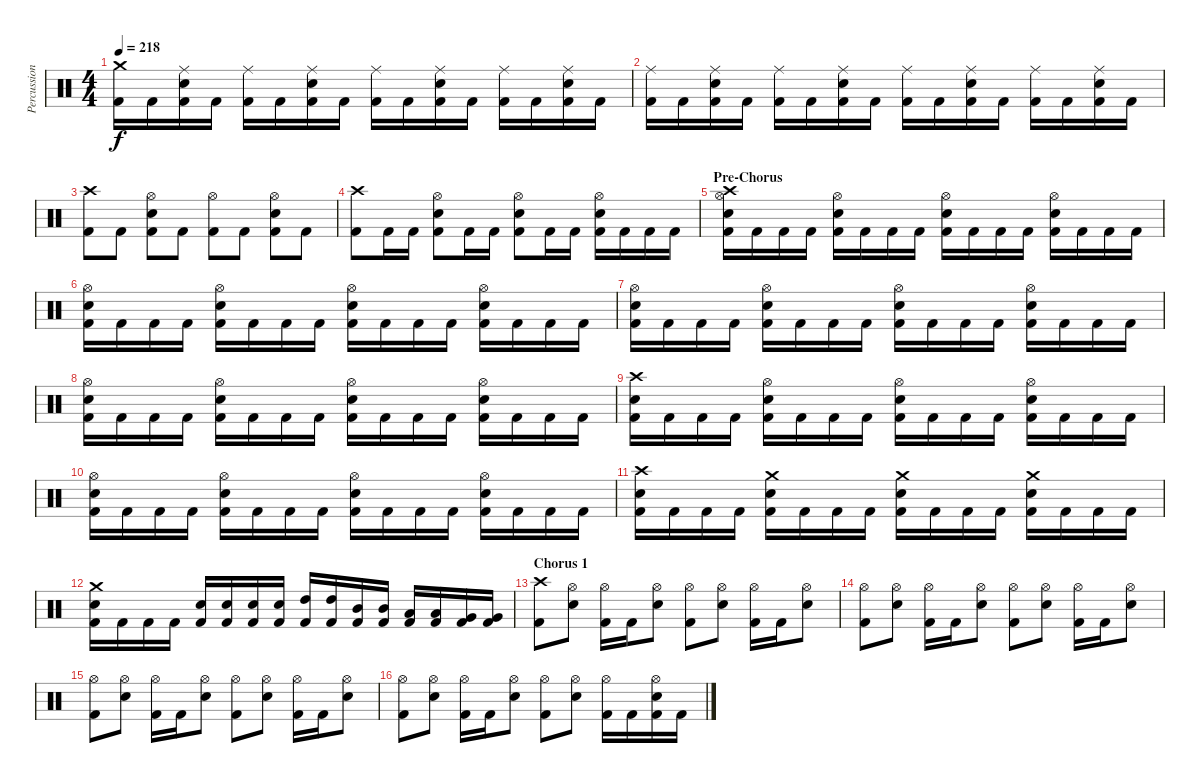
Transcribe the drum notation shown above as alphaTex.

\track ("Percussion" "Percussion") {instrument percussion}
\staff {score}
\articulation defaults
\ts (4 4)
\tempo 218
\clef neutral
\ks c
("Crash medium (hit)" "Kick (hit) 2").16{dy f} "Kick (hit) 2".16 ("Ride (middle)" "Electric Snare (hit)" "Kick (hit) 2").16 "Kick (hit) 2".16 ("Ride (middle)" "Kick (hit) 2").16 "Kick (hit) 2".16 ("Ride (middle)" "Electric Snare (hit)" "Kick (hit) 2").16 "Kick (hit) 2".16 ("Ride (middle)" "Kick (hit) 2").16 "Kick (hit) 2".16 ("Ride (middle)" "Electric Snare (hit)" "Kick (hit) 2").16 "Kick (hit) 2".16 ("Ride (middle)" "Kick (hit) 2").16 "Kick (hit) 2".16 ("Ride (middle)" "Electric Snare (hit)" "Kick (hit) 2").16 "Kick (hit) 2".16 |
("Ride (middle)" "Kick (hit) 2").16 "Kick (hit) 2".16 ("Ride (middle)" "Electric Snare (hit)" "Kick (hit) 2").16 "Kick (hit) 2".16 ("Ride (middle)" "Kick (hit) 2").16 "Kick (hit) 2".16 ("Ride (middle)" "Electric Snare (hit)" "Kick (hit) 2").16 "Kick (hit) 2".16 ("Ride (middle)" "Kick (hit) 2").16 "Kick (hit) 2".16 ("Ride (middle)" "Electric Snare (hit)" "Kick (hit) 2").16 "Kick (hit) 2".16 ("Ride (middle)" "Kick (hit) 2").16 "Kick (hit) 2".16 ("Ride (middle)" "Electric Snare (hit)" "Kick (hit) 2").16 "Kick (hit) 2".16 |
("Crash high (hit)" "Kick (hit) 2").8 "Kick (hit) 2".8 ("Hi-Hat (open)" "Electric Snare (hit)" "Kick (hit) 2").8 "Kick (hit) 2".8 ("Hi-Hat (open)" "Kick (hit) 2").8 "Kick (hit) 2".8 ("Hi-Hat (open)" "Electric Snare (hit)" "Kick (hit) 2").8 "Kick (hit) 2".8 |
("Crash high (hit)" "Kick (hit) 2").8 "Kick (hit) 2".16 "Kick (hit) 2".16 ("Hi-Hat (open)" "Electric Snare (hit)" "Kick (hit) 2").8 "Kick (hit) 2".16 "Kick (hit) 2".16 ("Hi-Hat (open)" "Electric Snare (hit)" "Kick (hit) 2").8 "Kick (hit) 2".16 "Kick (hit) 2".16 ("Hi-Hat (open)" "Electric Snare (hit)" "Kick (hit) 2").16 "Kick (hit) 2".16 "Kick (hit) 2".16 "Kick (hit) 2".16 |
\section ("" "Pre-Chorus")
("Crash high (hit)" "Hi-Hat (open)" "Electric Snare (hit)" "Kick (hit) 2").16 "Kick (hit) 2".16 "Kick (hit) 2".16 "Kick (hit) 2".16 ("Hi-Hat (open)" "Electric Snare (hit)" "Kick (hit) 2").16 "Kick (hit) 2".16 "Kick (hit) 2".16 "Kick (hit) 2".16 ("Hi-Hat (open)" "Electric Snare (hit)" "Kick (hit) 2").16 "Kick (hit) 2".16 "Kick (hit) 2".16 "Kick (hit) 2".16 ("Hi-Hat (open)" "Electric Snare (hit)" "Kick (hit) 2").16 "Kick (hit) 2".16 "Kick (hit) 2".16 "Kick (hit) 2".16 |
("Hi-Hat (open)" "Electric Snare (hit)" "Kick (hit) 2").16 "Kick (hit) 2".16 "Kick (hit) 2".16 "Kick (hit) 2".16 ("Hi-Hat (open)" "Electric Snare (hit)" "Kick (hit) 2").16 "Kick (hit) 2".16 "Kick (hit) 2".16 "Kick (hit) 2".16 ("Hi-Hat (open)" "Electric Snare (hit)" "Kick (hit) 2").16 "Kick (hit) 2".16 "Kick (hit) 2".16 "Kick (hit) 2".16 ("Hi-Hat (open)" "Electric Snare (hit)" "Kick (hit) 2").16 "Kick (hit) 2".16 "Kick (hit) 2".16 "Kick (hit) 2".16 |
("Hi-Hat (open)" "Electric Snare (hit)" "Kick (hit) 2").16 "Kick (hit) 2".16 "Kick (hit) 2".16 "Kick (hit) 2".16 ("Hi-Hat (open)" "Electric Snare (hit)" "Kick (hit) 2").16 "Kick (hit) 2".16 "Kick (hit) 2".16 "Kick (hit) 2".16 ("Hi-Hat (open)" "Electric Snare (hit)" "Kick (hit) 2").16 "Kick (hit) 2".16 "Kick (hit) 2".16 "Kick (hit) 2".16 ("Hi-Hat (open)" "Electric Snare (hit)" "Kick (hit) 2").16 "Kick (hit) 2".16 "Kick (hit) 2".16 "Kick (hit) 2".16 |
("Hi-Hat (open)" "Electric Snare (hit)" "Kick (hit) 2").16 "Kick (hit) 2".16 "Kick (hit) 2".16 "Kick (hit) 2".16 ("Hi-Hat (open)" "Electric Snare (hit)" "Kick (hit) 2").16 "Kick (hit) 2".16 "Kick (hit) 2".16 "Kick (hit) 2".16 ("Hi-Hat (open)" "Electric Snare (hit)" "Kick (hit) 2").16 "Kick (hit) 2".16 "Kick (hit) 2".16 "Kick (hit) 2".16 ("Hi-Hat (open)" "Electric Snare (hit)" "Kick (hit) 2").16 "Kick (hit) 2".16 "Kick (hit) 2".16 "Kick (hit) 2".16 |
("Crash high (hit)" "Electric Snare (hit)" "Kick (hit) 2").16 "Kick (hit) 2".16 "Kick (hit) 2".16 "Kick (hit) 2".16 ("Hi-Hat (open)" "Electric Snare (hit)" "Kick (hit) 2").16 "Kick (hit) 2".16 "Kick (hit) 2".16 "Kick (hit) 2".16 ("Hi-Hat (open)" "Electric Snare (hit)" "Kick (hit) 2").16 "Kick (hit) 2".16 "Kick (hit) 2".16 "Kick (hit) 2".16 ("Hi-Hat (open)" "Electric Snare (hit)" "Kick (hit) 2").16 "Kick (hit) 2".16 "Kick (hit) 2".16 "Kick (hit) 2".16 |
("Hi-Hat (open)" "Electric Snare (hit)" "Kick (hit) 2").16 "Kick (hit) 2".16 "Kick (hit) 2".16 "Kick (hit) 2".16 ("Hi-Hat (open)" "Electric Snare (hit)" "Kick (hit) 2").16 "Kick (hit) 2".16 "Kick (hit) 2".16 "Kick (hit) 2".16 ("Hi-Hat (open)" "Electric Snare (hit)" "Kick (hit) 2").16 "Kick (hit) 2".16 "Kick (hit) 2".16 "Kick (hit) 2".16 ("Hi-Hat (open)" "Electric Snare (hit)" "Kick (hit) 2").16 "Kick (hit) 2".16 "Kick (hit) 2".16 "Kick (hit) 2".16 |
("Crash high (hit)" "Electric Snare (hit)" "Kick (hit) 2").16 "Kick (hit) 2".16 "Kick (hit) 2".16 "Kick (hit) 2".16 ("Crash medium (hit)" "Electric Snare (hit)" "Kick (hit) 2").16 "Kick (hit) 2".16 "Kick (hit) 2".16 "Kick (hit) 2".16 ("Crash medium (hit)" "Electric Snare (hit)" "Kick (hit) 2").16 "Kick (hit) 2".16 "Kick (hit) 2".16 "Kick (hit) 2".16 ("Crash medium (hit)" "Electric Snare (hit)" "Kick (hit) 2").16 "Kick (hit) 2".16 "Kick (hit) 2".16 "Kick (hit) 2".16 |
("Crash medium (hit)" "Electric Snare (hit)" "Kick (hit) 2").16 "Kick (hit) 2".16 "Kick (hit) 2".16 "Kick (hit) 2".16 ("Electric Snare (hit)" "Kick (hit) 2").16 ("Electric Snare (hit)" "Kick (hit) 2").16 ("Electric Snare (hit)" "Kick (hit) 2").16 ("Electric Snare (hit)" "Kick (hit) 2").16 ("High Tom (hit)" "Kick (hit) 2").16 ("High Tom (hit)" "Kick (hit) 2").16 ("Mid Tom (hit)" "Kick (hit) 2").16 ("Mid Tom (hit)" "Kick (hit) 2").16 ("Low Tom (hit)" "Kick (hit) 2").16 ("Low Tom (hit)" "Kick (hit) 2").16 ("Very Low Tom (hit)" "Kick (hit) 2").16 ("Very Low Tom (hit)" "Kick (hit) 2").16 |
\section ("" "Chorus 1")
("Crash high (hit)" "Kick (hit) 2").8 ("Hi-Hat (open)" "Electric Snare (hit)").8 ("Hi-Hat (open)" "Kick (hit) 2").16 "Kick (hit) 2".16 ("Hi-Hat (open)" "Electric Snare (hit)").8 ("Hi-Hat (open)" "Kick (hit) 2").8 ("Hi-Hat (open)" "Electric Snare (hit)").8 ("Hi-Hat (open)" "Kick (hit) 2").16 "Kick (hit) 2".16 ("Hi-Hat (open)" "Electric Snare (hit)").8 |
("Hi-Hat (open)" "Kick (hit) 2").8 ("Hi-Hat (open)" "Electric Snare (hit)").8 ("Hi-Hat (open)" "Kick (hit) 2").16 "Kick (hit) 2".16 ("Hi-Hat (open)" "Electric Snare (hit)").8 ("Hi-Hat (open)" "Kick (hit) 2").8 ("Hi-Hat (open)" "Electric Snare (hit)").8 ("Hi-Hat (open)" "Kick (hit) 2").16 "Kick (hit) 2".16 ("Hi-Hat (open)" "Electric Snare (hit)").8 |
("Hi-Hat (open)" "Kick (hit) 2").8 ("Hi-Hat (open)" "Electric Snare (hit)").8 ("Hi-Hat (open)" "Kick (hit) 2").16 "Kick (hit) 2".16 ("Hi-Hat (open)" "Electric Snare (hit)").8 ("Hi-Hat (open)" "Kick (hit) 2").8 ("Hi-Hat (open)" "Electric Snare (hit)").8 ("Hi-Hat (open)" "Kick (hit) 2").16 "Kick (hit) 2".16 ("Hi-Hat (open)" "Electric Snare (hit)").8 |
("Hi-Hat (open)" "Kick (hit) 2").8 ("Hi-Hat (open)" "Electric Snare (hit)").8 ("Hi-Hat (open)" "Kick (hit) 2").16 "Kick (hit) 2".16 ("Hi-Hat (open)" "Electric Snare (hit)").8 ("Hi-Hat (open)" "Kick (hit) 2").8 ("Hi-Hat (open)" "Electric Snare (hit)").8 ("Hi-Hat (open)" "Kick (hit) 2").16 "Kick (hit) 2".16 ("Hi-Hat (open)" "Electric Snare (hit)" "Kick (hit) 2").16 "Kick (hit) 2".16
